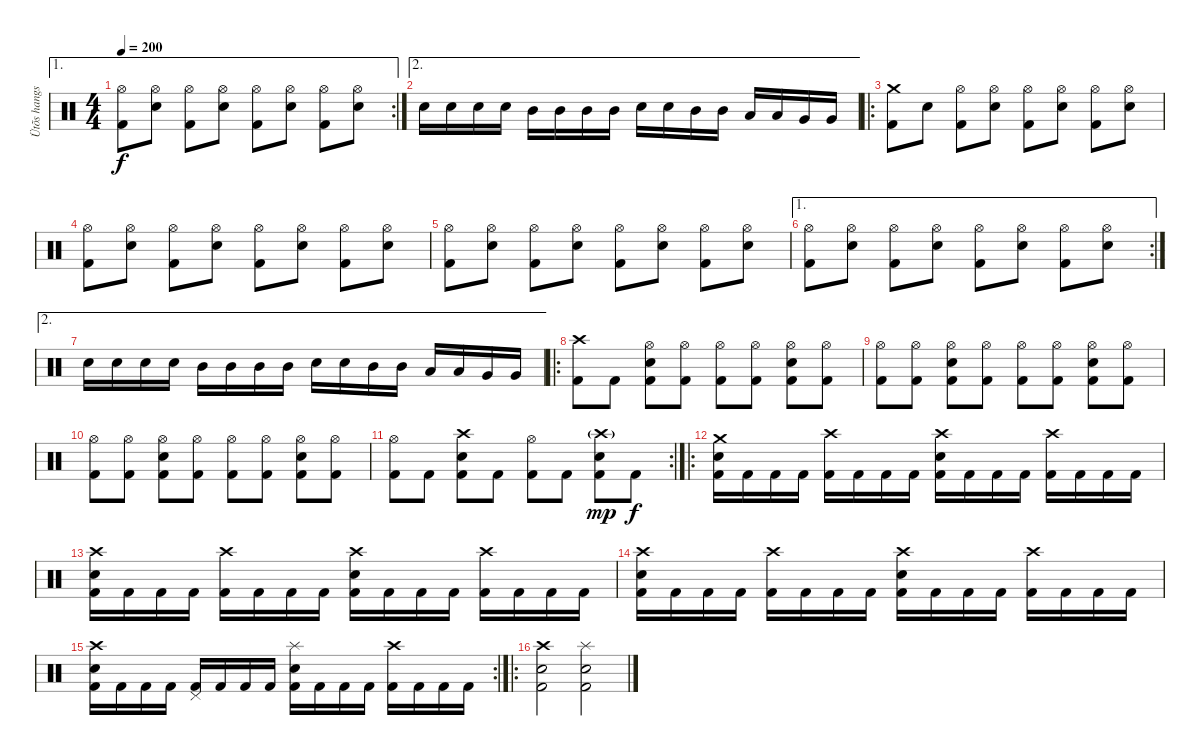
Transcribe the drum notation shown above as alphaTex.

\track ("Ütõs hangszer" "Ütõs hangs") {instrument percussion}
\staff {score}
\articulation defaults
\ae 1
\rc 2
\ts (4 4)
\tempo 200
\clef neutral
\ks c
("Hi-Hat (open)" "Kick (hit) 2").8{dy f} ("Hi-Hat (open)" "Snare (hit) 2").8 ("Hi-Hat (open)" "Kick (hit) 2").8 ("Hi-Hat (open)" "Snare (hit) 2").8 ("Hi-Hat (open)" "Kick (hit) 2").8 ("Hi-Hat (open)" "Snare (hit) 2").8 ("Hi-Hat (open)" "Kick (hit) 2").8 ("Hi-Hat (open)" "Snare (hit) 2").8 |
\ae 2 "Snare (hit) 2".16 "Snare (hit) 2".16 "Snare (hit) 2".16 "Snare (hit) 2".16 "Mid Tom (hit)".16 "Mid Tom (hit)".16 "Mid Tom (hit)".16 "Mid Tom (hit)".16 "Snare (hit) 2".16 "Snare (hit) 2".16 "Mid Tom (hit)".16 "Mid Tom (hit)".16 "Low Tom (hit)".16 "Low Tom (hit)".16 "Very Low Tom (hit)".16 "Very Low Tom (hit)".16
|
\ro
("Crash medium (hit)" "Kick (hit) 2").8 "Snare (hit) 2".8 ("Hi-Hat (open)" "Kick (hit) 2").8 ("Hi-Hat (open)" "Snare (hit) 2").8 ("Hi-Hat (open)" "Kick (hit) 2").8 ("Hi-Hat (open)" "Snare (hit) 2").8 ("Hi-Hat (open)" "Kick (hit) 2").8 ("Hi-Hat (open)" "Snare (hit) 2").8 |
("Hi-Hat (open)" "Kick (hit) 2").8 ("Hi-Hat (open)" "Snare (hit) 2").8 ("Hi-Hat (open)" "Kick (hit) 2").8 ("Hi-Hat (open)" "Snare (hit) 2").8 ("Hi-Hat (open)" "Kick (hit) 2").8 ("Hi-Hat (open)" "Snare (hit) 2").8 ("Hi-Hat (open)" "Kick (hit) 2").8 ("Hi-Hat (open)" "Snare (hit) 2").8 |
("Hi-Hat (open)" "Kick (hit) 2").8 ("Hi-Hat (open)" "Snare (hit) 2").8 ("Hi-Hat (open)" "Kick (hit) 2").8 ("Hi-Hat (open)" "Snare (hit) 2").8 ("Hi-Hat (open)" "Kick (hit) 2").8 ("Hi-Hat (open)" "Snare (hit) 2").8 ("Hi-Hat (open)" "Kick (hit) 2").8 ("Hi-Hat (open)" "Snare (hit) 2").8 |
\ae 1
\rc 2
("Hi-Hat (open)" "Kick (hit) 2").8 ("Hi-Hat (open)" "Snare (hit) 2").8 ("Hi-Hat (open)" "Kick (hit) 2").8 ("Hi-Hat (open)" "Snare (hit) 2").8 ("Hi-Hat (open)" "Kick (hit) 2").8 ("Hi-Hat (open)" "Snare (hit) 2").8 ("Hi-Hat (open)" "Kick (hit) 2").8 ("Hi-Hat (open)" "Snare (hit) 2").8 |
\ae 2 "Snare (hit) 2".16 "Snare (hit) 2".16 "Snare (hit) 2".16 "Snare (hit) 2".16 "Mid Tom (hit)".16 "Mid Tom (hit)".16 "Mid Tom (hit)".16 "Mid Tom (hit)".16 "Snare (hit) 2".16 "Snare (hit) 2".16 "Mid Tom (hit)".16 "Mid Tom (hit)".16 "Low Tom (hit)".16 "Low Tom (hit)".16 "Very Low Tom (hit)".16 "Very Low Tom (hit)".16
|
\ro
("Crash high (hit)" "Kick (hit) 2").8 "Kick (hit) 2".8 ("Hi-Hat (open)" "Snare (hit) 2" "Kick (hit) 2").8 ("Hi-Hat (open)" "Kick (hit) 2").8 ("Hi-Hat (open)" "Kick (hit) 2").8 ("Hi-Hat (open)" "Kick (hit) 2").8 ("Hi-Hat (open)" "Snare (hit) 2" "Kick (hit) 2").8 ("Hi-Hat (open)" "Kick (hit) 2").8 |
("Hi-Hat (open)" "Kick (hit) 2").8 ("Hi-Hat (open)" "Kick (hit) 2").8 ("Hi-Hat (open)" "Snare (hit) 2" "Kick (hit) 2").8 ("Hi-Hat (open)" "Kick (hit) 2").8 ("Hi-Hat (open)" "Kick (hit) 2").8 ("Hi-Hat (open)" "Kick (hit) 2").8 ("Hi-Hat (open)" "Snare (hit) 2" "Kick (hit) 2").8 ("Hi-Hat (open)" "Kick (hit) 2").8 |
("Hi-Hat (open)" "Kick (hit) 2").8 ("Hi-Hat (open)" "Kick (hit) 2").8 ("Hi-Hat (open)" "Snare (hit) 2" "Kick (hit) 2").8 ("Hi-Hat (open)" "Kick (hit) 2").8 ("Hi-Hat (open)" "Kick (hit) 2").8 ("Hi-Hat (open)" "Kick (hit) 2").8 ("Hi-Hat (open)" "Snare (hit) 2" "Kick (hit) 2").8 ("Hi-Hat (open)" "Kick (hit) 2").8 |
\rc 2
("Hi-Hat (open)" "Kick (hit) 2").8 "Kick (hit) 2".8 ("Crash high (hit)" "Snare (hit) 2" "Kick (hit) 2").8 "Kick (hit) 2".8 ("Hi-Hat (open)" "Kick (hit) 2").8 "Kick (hit) 2".8 ("Crash high (hit)"{g} "Snare (hit) 2" "Kick (hit) 2").8{dy mp} "Kick (hit) 2".8{dy f} |
\ro
("Crash medium (hit)" "Snare (hit) 2" "Kick (hit) 2").16 "Kick (hit) 2".16 "Kick (hit) 2".16 "Kick (hit) 2".16 ("Crash high (hit)" "Kick (hit) 2").16 "Kick (hit) 2".16 "Kick (hit) 2".16 "Kick (hit) 2".16 ("Crash high (hit)" "Snare (hit) 2" "Kick (hit) 2").16 "Kick (hit) 2".16 "Kick (hit) 2".16 "Kick (hit) 2".16 ("Crash high (hit)" "Kick (hit) 2").16 "Kick (hit) 2".16 "Kick (hit) 2".16 "Kick (hit) 2".16 |
("Crash high (hit)" "Snare (hit) 2" "Kick (hit) 2").16 "Kick (hit) 2".16 "Kick (hit) 2".16 "Kick (hit) 2".16 ("Crash high (hit)" "Kick (hit) 2").16 "Kick (hit) 2".16 "Kick (hit) 2".16 "Kick (hit) 2".16 ("Crash high (hit)" "Snare (hit) 2" "Kick (hit) 2").16 "Kick (hit) 2".16 "Kick (hit) 2".16 "Kick (hit) 2".16 ("Crash high (hit)" "Kick (hit) 2").16 "Kick (hit) 2".16 "Kick (hit) 2".16 "Kick (hit) 2".16 |
("Crash high (hit)" "Snare (hit) 2" "Kick (hit) 2").16 "Kick (hit) 2".16 "Kick (hit) 2".16 "Kick (hit) 2".16 ("Crash high (hit)" "Kick (hit) 2").16 "Kick (hit) 2".16 "Kick (hit) 2".16 "Kick (hit) 2".16 ("Crash high (hit)" "Snare (hit) 2" "Kick (hit) 2").16 "Kick (hit) 2".16 "Kick (hit) 2".16 "Kick (hit) 2".16 ("Crash high (hit)" "Kick (hit) 2").16 "Kick (hit) 2".16 "Kick (hit) 2".16 "Kick (hit) 2".16 |
\rc 2
("Crash high (hit)" "Snare (hit) 2" "Kick (hit) 2").16 "Kick (hit) 2".16 "Kick (hit) 2".16 "Kick (hit) 2".16 ("Pedal Hi-Hat (hit)" "Kick (hit) 2").16 "Kick (hit) 2".16 "Kick (hit) 2".16 "Kick (hit) 2".16 ("Splash (hit)" "Snare (hit) 2" "Kick (hit) 2").16 "Kick (hit) 2".16 "Kick (hit) 2".16 "Kick (hit) 2".16 ("Crash high (hit)" "Kick (hit) 2").16 "Kick (hit) 2".16 "Kick (hit) 2".16 "Kick (hit) 2".16 |
\ro
("Crash high (hit)" "Snare (hit) 2" "Kick (hit) 2").2 ("Splash (hit)" "Snare (hit) 2" "Kick (hit) 2").2
